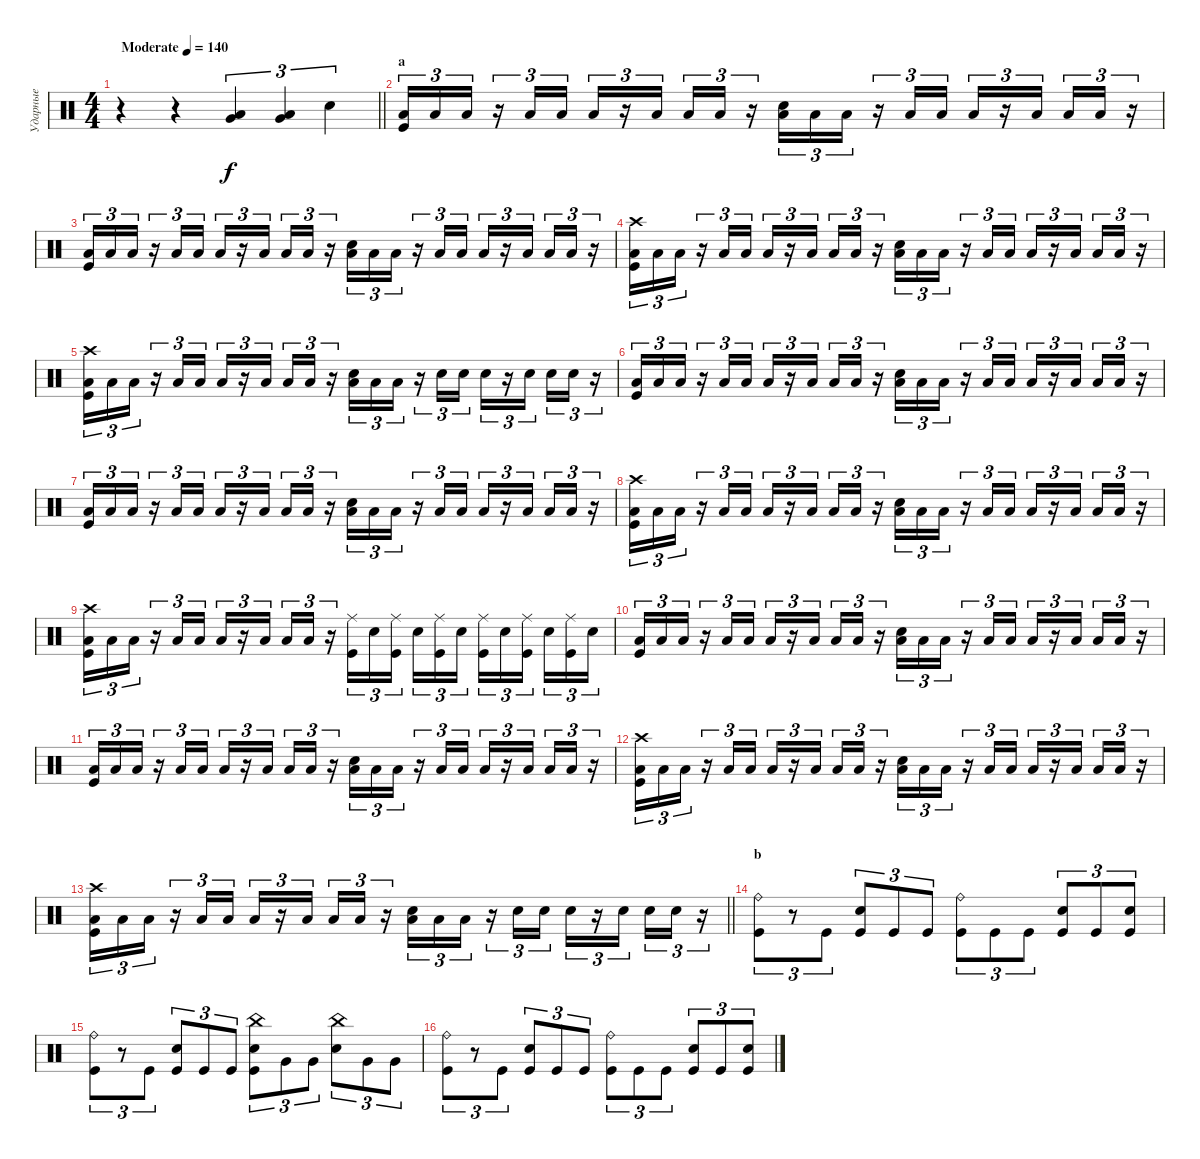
\track ("Ударные" "Ударные") {instrument percussion}
\staff {score}
\articulation defaults
\ts (4 4)
\tempo (140 "Moderate")
\clef neutral
\barLineRight lightlight
\ks c
r.4{dy f} r.4 ("Very Low Tom (hit)" "Low Floor Tom (hit)").4{tu (3 2)} ("Very Low Tom (hit)" "Low Floor Tom (hit)").4{tu (3 2)} "Electric Snare (hit)".4{tu (3 2)} |
\section ("" "a")
("Low Floor Tom (hit)" "Kick (hit)").16{tu (3 2)} "Low Floor Tom (hit)".16{tu (3 2)} "Low Floor Tom (hit)".16{tu (3 2)} r.16{tu (3 2)} "Low Floor Tom (hit)".16{tu (3 2)} "Low Floor Tom (hit)".16{tu (3 2)} "Low Floor Tom (hit)".16{tu (3 2)} r.16{tu (3 2)} "Low Floor Tom (hit)".16{tu (3 2) beam splitsecondary} "Low Floor Tom (hit)".16{tu (3 2)} "Low Floor Tom (hit)".16{tu (3 2)} r.16{tu (3 2)} ("Low Floor Tom (hit)" "Electric Snare (hit)").16{tu (3 2)} "Low Floor Tom (hit)".16{tu (3 2)} "Low Floor Tom (hit)".16{tu (3 2)} r.16{tu (3 2)} "Low Floor Tom (hit)".16{tu (3 2)} "Low Floor Tom (hit)".16{tu (3 2)} "Low Floor Tom (hit)".16{tu (3 2)} r.16{tu (3 2)} "Low Floor Tom (hit)".16{tu (3 2) beam splitsecondary} "Low Floor Tom (hit)".16{tu (3 2)} "Low Floor Tom (hit)".16{tu (3 2)} r.16{tu (3 2)} |
("Low Floor Tom (hit)" "Kick (hit)").16{tu (3 2)} "Low Floor Tom (hit)".16{tu (3 2)} "Low Floor Tom (hit)".16{tu (3 2)} r.16{tu (3 2)} "Low Floor Tom (hit)".16{tu (3 2)} "Low Floor Tom (hit)".16{tu (3 2)} "Low Floor Tom (hit)".16{tu (3 2)} r.16{tu (3 2)} "Low Floor Tom (hit)".16{tu (3 2) beam splitsecondary} "Low Floor Tom (hit)".16{tu (3 2)} "Low Floor Tom (hit)".16{tu (3 2)} r.16{tu (3 2)} ("Low Floor Tom (hit)" "Electric Snare (hit)").16{tu (3 2)} "Low Floor Tom (hit)".16{tu (3 2)} "Low Floor Tom (hit)".16{tu (3 2)} r.16{tu (3 2)} "Low Floor Tom (hit)".16{tu (3 2)} "Low Floor Tom (hit)".16{tu (3 2)} "Low Floor Tom (hit)".16{tu (3 2)} r.16{tu (3 2)} "Low Floor Tom (hit)".16{tu (3 2) beam splitsecondary} "Low Floor Tom (hit)".16{tu (3 2)} "Low Floor Tom (hit)".16{tu (3 2)} r.16{tu (3 2)} |
("Low Floor Tom (hit)" "Kick (hit)" "Crash high (hit)").16{tu (3 2)} "Low Floor Tom (hit)".16{tu (3 2)} "Low Floor Tom (hit)".16{tu (3 2)} r.16{tu (3 2)} "Low Floor Tom (hit)".16{tu (3 2)} "Low Floor Tom (hit)".16{tu (3 2)} "Low Floor Tom (hit)".16{tu (3 2)} r.16{tu (3 2)} "Low Floor Tom (hit)".16{tu (3 2) beam splitsecondary} "Low Floor Tom (hit)".16{tu (3 2)} "Low Floor Tom (hit)".16{tu (3 2)} r.16{tu (3 2)} ("Low Floor Tom (hit)" "Electric Snare (hit)").16{tu (3 2)} "Low Floor Tom (hit)".16{tu (3 2)} "Low Floor Tom (hit)".16{tu (3 2)} r.16{tu (3 2)} "Low Floor Tom (hit)".16{tu (3 2)} "Low Floor Tom (hit)".16{tu (3 2)} "Low Floor Tom (hit)".16{tu (3 2)} r.16{tu (3 2)} "Low Floor Tom (hit)".16{tu (3 2) beam splitsecondary} "Low Floor Tom (hit)".16{tu (3 2)} "Low Floor Tom (hit)".16{tu (3 2)} r.16{tu (3 2)} |
("Low Floor Tom (hit)" "Kick (hit)" "Crash high (hit)").16{tu (3 2)} "Low Floor Tom (hit)".16{tu (3 2)} "Low Floor Tom (hit)".16{tu (3 2)} r.16{tu (3 2)} "Low Floor Tom (hit)".16{tu (3 2)} "Low Floor Tom (hit)".16{tu (3 2)} "Low Floor Tom (hit)".16{tu (3 2)} r.16{tu (3 2)} "Low Floor Tom (hit)".16{tu (3 2) beam splitsecondary} "Low Floor Tom (hit)".16{tu (3 2)} "Low Floor Tom (hit)".16{tu (3 2)} r.16{tu (3 2)} ("Low Floor Tom (hit)" "Electric Snare (hit)").16{tu (3 2)} "Low Floor Tom (hit)".16{tu (3 2)} "Low Floor Tom (hit)".16{tu (3 2)} r.16{tu (3 2)} "Electric Snare (hit)".16{tu (3 2)} "Electric Snare (hit)".16{tu (3 2)} "Electric Snare (hit)".16{tu (3 2)} r.16{tu (3 2)} "Electric Snare (hit)".16{tu (3 2) beam splitsecondary} "Electric Snare (hit)".16{tu (3 2)} "Electric Snare (hit)".16{tu (3 2)} r.16{tu (3 2)} |
("Low Floor Tom (hit)" "Kick (hit)").16{tu (3 2)} "Low Floor Tom (hit)".16{tu (3 2)} "Low Floor Tom (hit)".16{tu (3 2)} r.16{tu (3 2)} "Low Floor Tom (hit)".16{tu (3 2)} "Low Floor Tom (hit)".16{tu (3 2)} "Low Floor Tom (hit)".16{tu (3 2)} r.16{tu (3 2)} "Low Floor Tom (hit)".16{tu (3 2) beam splitsecondary} "Low Floor Tom (hit)".16{tu (3 2)} "Low Floor Tom (hit)".16{tu (3 2)} r.16{tu (3 2)} ("Low Floor Tom (hit)" "Electric Snare (hit)").16{tu (3 2)} "Low Floor Tom (hit)".16{tu (3 2)} "Low Floor Tom (hit)".16{tu (3 2)} r.16{tu (3 2)} "Low Floor Tom (hit)".16{tu (3 2)} "Low Floor Tom (hit)".16{tu (3 2)} "Low Floor Tom (hit)".16{tu (3 2)} r.16{tu (3 2)} "Low Floor Tom (hit)".16{tu (3 2) beam splitsecondary} "Low Floor Tom (hit)".16{tu (3 2)} "Low Floor Tom (hit)".16{tu (3 2)} r.16{tu (3 2)} |
("Low Floor Tom (hit)" "Kick (hit)").16{tu (3 2)} "Low Floor Tom (hit)".16{tu (3 2)} "Low Floor Tom (hit)".16{tu (3 2)} r.16{tu (3 2)} "Low Floor Tom (hit)".16{tu (3 2)} "Low Floor Tom (hit)".16{tu (3 2)} "Low Floor Tom (hit)".16{tu (3 2)} r.16{tu (3 2)} "Low Floor Tom (hit)".16{tu (3 2) beam splitsecondary} "Low Floor Tom (hit)".16{tu (3 2)} "Low Floor Tom (hit)".16{tu (3 2)} r.16{tu (3 2)} ("Low Floor Tom (hit)" "Electric Snare (hit)").16{tu (3 2)} "Low Floor Tom (hit)".16{tu (3 2)} "Low Floor Tom (hit)".16{tu (3 2)} r.16{tu (3 2)} "Low Floor Tom (hit)".16{tu (3 2)} "Low Floor Tom (hit)".16{tu (3 2)} "Low Floor Tom (hit)".16{tu (3 2)} r.16{tu (3 2)} "Low Floor Tom (hit)".16{tu (3 2) beam splitsecondary} "Low Floor Tom (hit)".16{tu (3 2)} "Low Floor Tom (hit)".16{tu (3 2)} r.16{tu (3 2)} |
("Low Floor Tom (hit)" "Kick (hit)" "Crash high (hit)").16{tu (3 2)} "Low Floor Tom (hit)".16{tu (3 2)} "Low Floor Tom (hit)".16{tu (3 2)} r.16{tu (3 2)} "Low Floor Tom (hit)".16{tu (3 2)} "Low Floor Tom (hit)".16{tu (3 2)} "Low Floor Tom (hit)".16{tu (3 2)} r.16{tu (3 2)} "Low Floor Tom (hit)".16{tu (3 2) beam splitsecondary} "Low Floor Tom (hit)".16{tu (3 2)} "Low Floor Tom (hit)".16{tu (3 2)} r.16{tu (3 2)} ("Low Floor Tom (hit)" "Electric Snare (hit)").16{tu (3 2)} "Low Floor Tom (hit)".16{tu (3 2)} "Low Floor Tom (hit)".16{tu (3 2)} r.16{tu (3 2)} "Low Floor Tom (hit)".16{tu (3 2)} "Low Floor Tom (hit)".16{tu (3 2)} "Low Floor Tom (hit)".16{tu (3 2)} r.16{tu (3 2)} "Low Floor Tom (hit)".16{tu (3 2) beam splitsecondary} "Low Floor Tom (hit)".16{tu (3 2)} "Low Floor Tom (hit)".16{tu (3 2)} r.16{tu (3 2)} |
("Low Floor Tom (hit)" "Kick (hit)" "Crash high (hit)").16{tu (3 2)} "Low Floor Tom (hit)".16{tu (3 2)} "Low Floor Tom (hit)".16{tu (3 2)} r.16{tu (3 2)} "Low Floor Tom (hit)".16{tu (3 2)} "Low Floor Tom (hit)".16{tu (3 2)} "Low Floor Tom (hit)".16{tu (3 2)} r.16{tu (3 2)} "Low Floor Tom (hit)".16{tu (3 2) beam splitsecondary} "Low Floor Tom (hit)".16{tu (3 2)} "Low Floor Tom (hit)".16{tu (3 2)} r.16{tu (3 2)} ("Ride (middle)" "Kick (hit)").16{tu (3 2)} "Electric Snare (hit)".16{tu (3 2)} ("Ride (middle)" "Kick (hit)").16{tu (3 2) beam splitsecondary} "Electric Snare (hit)".16{tu (3 2)} ("Ride (middle)" "Kick (hit)").16{tu (3 2)} "Electric Snare (hit)".16{tu (3 2)} ("Ride (middle)" "Kick (hit)").16{tu (3 2)} "Electric Snare (hit)".16{tu (3 2)} ("Ride (middle)" "Kick (hit)").16{tu (3 2) beam splitsecondary} "Electric Snare (hit)".16{tu (3 2)} ("Ride (middle)" "Kick (hit)").16{tu (3 2)} "Electric Snare (hit)".16{tu (3 2)} |
("Low Floor Tom (hit)" "Kick (hit)").16{tu (3 2)} "Low Floor Tom (hit)".16{tu (3 2)} "Low Floor Tom (hit)".16{tu (3 2)} r.16{tu (3 2)} "Low Floor Tom (hit)".16{tu (3 2)} "Low Floor Tom (hit)".16{tu (3 2)} "Low Floor Tom (hit)".16{tu (3 2)} r.16{tu (3 2)} "Low Floor Tom (hit)".16{tu (3 2) beam splitsecondary} "Low Floor Tom (hit)".16{tu (3 2)} "Low Floor Tom (hit)".16{tu (3 2)} r.16{tu (3 2)} ("Low Floor Tom (hit)" "Electric Snare (hit)").16{tu (3 2)} "Low Floor Tom (hit)".16{tu (3 2)} "Low Floor Tom (hit)".16{tu (3 2)} r.16{tu (3 2)} "Low Floor Tom (hit)".16{tu (3 2)} "Low Floor Tom (hit)".16{tu (3 2)} "Low Floor Tom (hit)".16{tu (3 2)} r.16{tu (3 2)} "Low Floor Tom (hit)".16{tu (3 2) beam splitsecondary} "Low Floor Tom (hit)".16{tu (3 2)} "Low Floor Tom (hit)".16{tu (3 2)} r.16{tu (3 2)} |
("Low Floor Tom (hit)" "Kick (hit)").16{tu (3 2)} "Low Floor Tom (hit)".16{tu (3 2)} "Low Floor Tom (hit)".16{tu (3 2)} r.16{tu (3 2)} "Low Floor Tom (hit)".16{tu (3 2)} "Low Floor Tom (hit)".16{tu (3 2)} "Low Floor Tom (hit)".16{tu (3 2)} r.16{tu (3 2)} "Low Floor Tom (hit)".16{tu (3 2) beam splitsecondary} "Low Floor Tom (hit)".16{tu (3 2)} "Low Floor Tom (hit)".16{tu (3 2)} r.16{tu (3 2)} ("Low Floor Tom (hit)" "Electric Snare (hit)").16{tu (3 2)} "Low Floor Tom (hit)".16{tu (3 2)} "Low Floor Tom (hit)".16{tu (3 2)} r.16{tu (3 2)} "Low Floor Tom (hit)".16{tu (3 2)} "Low Floor Tom (hit)".16{tu (3 2)} "Low Floor Tom (hit)".16{tu (3 2)} r.16{tu (3 2)} "Low Floor Tom (hit)".16{tu (3 2) beam splitsecondary} "Low Floor Tom (hit)".16{tu (3 2)} "Low Floor Tom (hit)".16{tu (3 2)} r.16{tu (3 2)} |
("Low Floor Tom (hit)" "Kick (hit)" "Crash high (hit)").16{tu (3 2)} "Low Floor Tom (hit)".16{tu (3 2)} "Low Floor Tom (hit)".16{tu (3 2)} r.16{tu (3 2)} "Low Floor Tom (hit)".16{tu (3 2)} "Low Floor Tom (hit)".16{tu (3 2)} "Low Floor Tom (hit)".16{tu (3 2)} r.16{tu (3 2)} "Low Floor Tom (hit)".16{tu (3 2) beam splitsecondary} "Low Floor Tom (hit)".16{tu (3 2)} "Low Floor Tom (hit)".16{tu (3 2)} r.16{tu (3 2)} ("Low Floor Tom (hit)" "Electric Snare (hit)").16{tu (3 2)} "Low Floor Tom (hit)".16{tu (3 2)} "Low Floor Tom (hit)".16{tu (3 2)} r.16{tu (3 2)} "Low Floor Tom (hit)".16{tu (3 2)} "Low Floor Tom (hit)".16{tu (3 2)} "Low Floor Tom (hit)".16{tu (3 2)} r.16{tu (3 2)} "Low Floor Tom (hit)".16{tu (3 2) beam splitsecondary} "Low Floor Tom (hit)".16{tu (3 2)} "Low Floor Tom (hit)".16{tu (3 2)} r.16{tu (3 2)} |
\barLineRight lightlight
("Low Floor Tom (hit)" "Kick (hit)" "Crash high (hit)").16{tu (3 2)} "Low Floor Tom (hit)".16{tu (3 2)} "Low Floor Tom (hit)".16{tu (3 2)} r.16{tu (3 2)} "Low Floor Tom (hit)".16{tu (3 2)} "Low Floor Tom (hit)".16{tu (3 2)} "Low Floor Tom (hit)".16{tu (3 2)} r.16{tu (3 2)} "Low Floor Tom (hit)".16{tu (3 2) beam splitsecondary} "Low Floor Tom (hit)".16{tu (3 2)} "Low Floor Tom (hit)".16{tu (3 2)} r.16{tu (3 2)} ("Low Floor Tom (hit)" "Electric Snare (hit)").16{tu (3 2)} "Low Floor Tom (hit)".16{tu (3 2)} "Low Floor Tom (hit)".16{tu (3 2)} r.16{tu (3 2)} "Electric Snare (hit)".16{tu (3 2)} "Electric Snare (hit)".16{tu (3 2)} "Electric Snare (hit)".16{tu (3 2)} r.16{tu (3 2)} "Electric Snare (hit)".16{tu (3 2) beam splitsecondary} "Electric Snare (hit)".16{tu (3 2)} "Electric Snare (hit)".16{tu (3 2)} r.16{tu (3 2)} |
\section ("" "b")
("Ride (bell)" "Kick (hit)").8{tu (3 2)} r.8{tu (3 2)} "Kick (hit)".8{tu (3 2)} ("Electric Snare (hit)" "Kick (hit)").8{tu (3 2)} "Kick (hit)".8{tu (3 2)} "Kick (hit)".8{tu (3 2)} ("Ride (bell)" "Kick (hit)").8{tu (3 2)} "Kick (hit)".8{tu (3 2)} "Kick (hit)".8{tu (3 2)} ("Electric Snare (hit)" "Kick (hit)").8{tu (3 2)} "Kick (hit)".8{tu (3 2)} ("Electric Snare (hit)" "Kick (hit)").8{tu (3 2)} |
("Ride (bell)" "Kick (hit)").8{tu (3 2)} r.8{tu (3 2)} "Kick (hit)".8{tu (3 2)} ("Electric Snare (hit)" "Kick (hit)").8{tu (3 2)} "Kick (hit)".8{tu (3 2)} "Kick (hit)".8{tu (3 2)} ("Electric Snare (hit)" "Kick (hit)" "China (hit)").8{tu (3 2)} "Very Low Tom (hit)".8{tu (3 2)} "Very Low Tom (hit)".8{tu (3 2)} ("Electric Snare (hit)" "China (hit)").8{tu (3 2)} "Very Low Tom (hit)".8{tu (3 2)} "Very Low Tom (hit)".8{tu (3 2)} |
("Ride (bell)" "Kick (hit)").8{tu (3 2)} r.8{tu (3 2)} "Kick (hit)".8{tu (3 2)} ("Electric Snare (hit)" "Kick (hit)").8{tu (3 2)} "Kick (hit)".8{tu (3 2)} "Kick (hit)".8{tu (3 2)} ("Ride (bell)" "Kick (hit)").8{tu (3 2)} "Kick (hit)".8{tu (3 2)} "Kick (hit)".8{tu (3 2)} ("Electric Snare (hit)" "Kick (hit)").8{tu (3 2)} "Kick (hit)".8{tu (3 2)} ("Electric Snare (hit)" "Kick (hit)").8{tu (3 2)}
